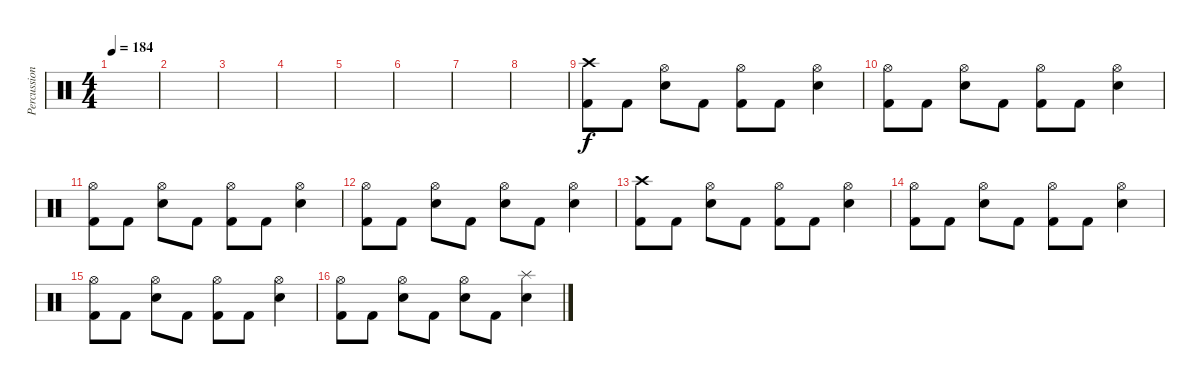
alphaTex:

\track ("Percussion" "Percussion") {instrument percussion}
\staff {score}
\articulation defaults
\ts (4 4)
\tempo 184
\clef neutral
\ks c
|
|
|
|
|
|
|
|
("Crash high (hit)" "Kick (hit) 2").8 "Kick (hit) 2".8 ("Hi-Hat (open)" "Electric Snare (hit)").8 "Kick (hit) 2".8 ("Hi-Hat (open)" "Kick (hit) 2").8 "Kick (hit) 2".8 ("Hi-Hat (open)" "Electric Snare (hit)").4 |
("Hi-Hat (open)" "Kick (hit) 2").8 "Kick (hit) 2".8 ("Hi-Hat (open)" "Electric Snare (hit)").8 "Kick (hit) 2".8 ("Hi-Hat (open)" "Kick (hit) 2").8 "Kick (hit) 2".8 ("Hi-Hat (open)" "Electric Snare (hit)").4 |
("Hi-Hat (open)" "Kick (hit) 2").8 "Kick (hit) 2".8 ("Hi-Hat (open)" "Electric Snare (hit)").8 "Kick (hit) 2".8 ("Hi-Hat (open)" "Kick (hit) 2").8 "Kick (hit) 2".8 ("Hi-Hat (open)" "Electric Snare (hit)").4 |
("Hi-Hat (open)" "Kick (hit) 2").8 "Kick (hit) 2".8 ("Hi-Hat (open)" "Electric Snare (hit)").8 "Kick (hit) 2".8 ("Hi-Hat (open)" "Electric Snare (hit)").8 "Kick (hit) 2".8 ("Hi-Hat (open)" "Electric Snare (hit)").4 |
("Crash high (hit)" "Kick (hit) 2").8 "Kick (hit) 2".8 ("Hi-Hat (open)" "Electric Snare (hit)").8 "Kick (hit) 2".8 ("Hi-Hat (open)" "Kick (hit) 2").8 "Kick (hit) 2".8 ("Hi-Hat (open)" "Electric Snare (hit)").4 |
("Hi-Hat (open)" "Kick (hit) 2").8 "Kick (hit) 2".8 ("Hi-Hat (open)" "Electric Snare (hit)").8 "Kick (hit) 2".8 ("Hi-Hat (open)" "Kick (hit) 2").8 "Kick (hit) 2".8 ("Hi-Hat (open)" "Electric Snare (hit)").4 |
("Hi-Hat (open)" "Kick (hit) 2").8 "Kick (hit) 2".8 ("Hi-Hat (open)" "Electric Snare (hit)").8 "Kick (hit) 2".8 ("Hi-Hat (open)" "Kick (hit) 2").8 "Kick (hit) 2".8 ("Hi-Hat (open)" "Electric Snare (hit)").4 |
("Hi-Hat (open)" "Kick (hit) 2").8 "Kick (hit) 2".8 ("Hi-Hat (open)" "Electric Snare (hit)").8 "Kick (hit) 2".8 ("Hi-Hat (open)" "Electric Snare (hit)").8 "Kick (hit) 2".8 ("Splash (hit)" "Electric Snare (hit)").4
